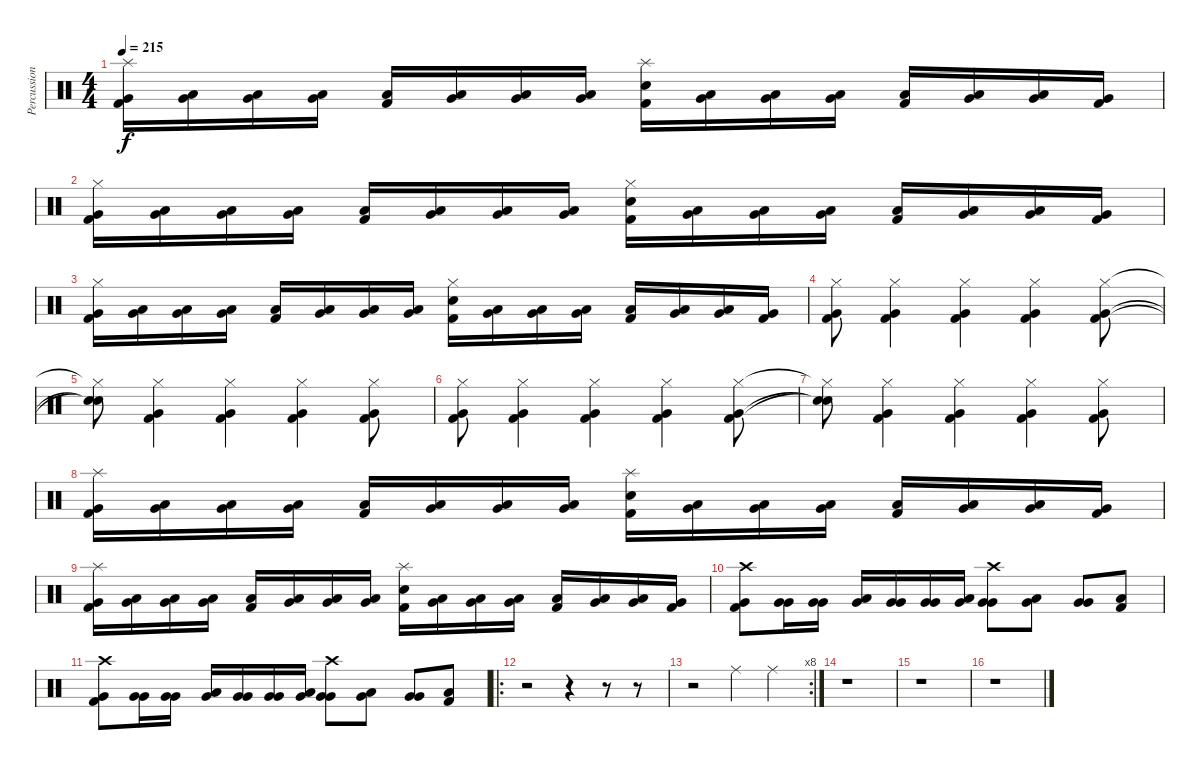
\track ("Percussion" "Percussion") {instrument percussion}
\staff {score}
\articulation defaults
\ts (4 4)
\tempo 215
\clef neutral
\ks c
("Splash (hit)" "Kick (hit) 2" "Very Low Tom (hit)").16{dy f} ("Low Floor Tom (hit)" "Very Low Tom (hit)").16 ("Low Floor Tom (hit)" "Very Low Tom (hit)").16 ("Low Floor Tom (hit)" "Very Low Tom (hit)").16 ("Kick (hit) 2" "Low Floor Tom (hit)").16 ("Low Floor Tom (hit)" "Very Low Tom (hit)").16 ("Low Floor Tom (hit)" "Very Low Tom (hit)").16 ("Low Floor Tom (hit)" "Very Low Tom (hit)").16 ("Splash (hit)" "Kick (hit) 2" "Electric Snare (hit)").16 ("Low Floor Tom (hit)" "Very Low Tom (hit)").16 ("Low Floor Tom (hit)" "Very Low Tom (hit)").16 ("Low Floor Tom (hit)" "Very Low Tom (hit)").16 ("Kick (hit) 2" "Low Floor Tom (hit)").16 ("Low Floor Tom (hit)" "Very Low Tom (hit)").16 ("Low Floor Tom (hit)" "Very Low Tom (hit)").16 ("Kick (hit) 2" "Very Low Tom (hit)").16 |
("Hi-Hat (closed)" "Kick (hit) 2" "Very Low Tom (hit)").16 ("Low Floor Tom (hit)" "Very Low Tom (hit)").16 ("Low Floor Tom (hit)" "Very Low Tom (hit)").16 ("Low Floor Tom (hit)" "Very Low Tom (hit)").16 ("Kick (hit) 2" "Low Floor Tom (hit)").16 ("Low Floor Tom (hit)" "Very Low Tom (hit)").16 ("Low Floor Tom (hit)" "Very Low Tom (hit)").16 ("Low Floor Tom (hit)" "Very Low Tom (hit)").16 ("Hi-Hat (closed)" "Kick (hit) 2" "Electric Snare (hit)").16 ("Low Floor Tom (hit)" "Very Low Tom (hit)").16 ("Low Floor Tom (hit)" "Very Low Tom (hit)").16 ("Low Floor Tom (hit)" "Very Low Tom (hit)").16 ("Kick (hit) 2" "Low Floor Tom (hit)").16 ("Low Floor Tom (hit)" "Very Low Tom (hit)").16 ("Low Floor Tom (hit)" "Very Low Tom (hit)").16 ("Kick (hit) 2" "Very Low Tom (hit)").16 |
("Hi-Hat (closed)" "Kick (hit) 2" "Very Low Tom (hit)").16 ("Low Floor Tom (hit)" "Very Low Tom (hit)").16 ("Low Floor Tom (hit)" "Very Low Tom (hit)").16 ("Low Floor Tom (hit)" "Very Low Tom (hit)").16 ("Kick (hit) 2" "Low Floor Tom (hit)").16 ("Low Floor Tom (hit)" "Very Low Tom (hit)").16 ("Low Floor Tom (hit)" "Very Low Tom (hit)").16 ("Low Floor Tom (hit)" "Very Low Tom (hit)").16 ("Hi-Hat (closed)" "Kick (hit) 2" "Electric Snare (hit)").16 ("Low Floor Tom (hit)" "Very Low Tom (hit)").16 ("Low Floor Tom (hit)" "Very Low Tom (hit)").16 ("Low Floor Tom (hit)" "Very Low Tom (hit)").16 ("Kick (hit) 2" "Low Floor Tom (hit)").16 ("Low Floor Tom (hit)" "Very Low Tom (hit)").16 ("Low Floor Tom (hit)" "Very Low Tom (hit)").16 ("Kick (hit) 2" "Very Low Tom (hit)").16 |
("Hi-Hat (closed)" "Kick (hit) 2" "Very Low Tom (hit)").8 ("Hi-Hat (closed)" "Kick (hit) 2" "Very Low Tom (hit)").4 ("Hi-Hat (closed)" "Kick (hit) 2" "Very Low Tom (hit)").4 ("Hi-Hat (closed)" "Kick (hit) 2" "Very Low Tom (hit)").4 ("Hi-Hat (closed)" "Kick (hit) 2" "Very Low Tom (hit)").8 |
("Hi-Hat (closed)"{t} "Snare (hit)"{t} "Snare (hit)"{t}).8 ("Hi-Hat (closed)" "Kick (hit) 2" "Very Low Tom (hit)").4 ("Hi-Hat (closed)" "Kick (hit) 2" "Very Low Tom (hit)").4 ("Hi-Hat (closed)" "Kick (hit) 2" "Very Low Tom (hit)").4 ("Hi-Hat (closed)" "Kick (hit) 2" "Very Low Tom (hit)").8 |
("Hi-Hat (closed)" "Kick (hit) 2" "Very Low Tom (hit)").8 ("Hi-Hat (closed)" "Kick (hit) 2" "Very Low Tom (hit)").4 ("Hi-Hat (closed)" "Kick (hit) 2" "Very Low Tom (hit)").4 ("Hi-Hat (closed)" "Kick (hit) 2" "Very Low Tom (hit)").4 ("Hi-Hat (closed)" "Kick (hit) 2" "Very Low Tom (hit)").8 |
("Hi-Hat (closed)"{t} "Snare (hit)"{t} "Snare (hit)"{t}).8 ("Hi-Hat (closed)" "Kick (hit) 2" "Very Low Tom (hit)").4 ("Hi-Hat (closed)" "Kick (hit) 2" "Very Low Tom (hit)").4 ("Hi-Hat (closed)" "Kick (hit) 2" "Very Low Tom (hit)").4 ("Hi-Hat (closed)" "Kick (hit) 2" "Very Low Tom (hit)").8 |
("Splash (hit)" "Kick (hit) 2" "Very Low Tom (hit)").16 ("Low Floor Tom (hit)" "Very Low Tom (hit)").16 ("Low Floor Tom (hit)" "Very Low Tom (hit)").16 ("Low Floor Tom (hit)" "Very Low Tom (hit)").16 ("Kick (hit) 2" "Low Floor Tom (hit)").16 ("Low Floor Tom (hit)" "Very Low Tom (hit)").16 ("Low Floor Tom (hit)" "Very Low Tom (hit)").16 ("Low Floor Tom (hit)" "Very Low Tom (hit)").16 ("Splash (hit)" "Kick (hit) 2" "Electric Snare (hit)").16 ("Low Floor Tom (hit)" "Very Low Tom (hit)").16 ("Low Floor Tom (hit)" "Very Low Tom (hit)").16 ("Low Floor Tom (hit)" "Very Low Tom (hit)").16 ("Kick (hit) 2" "Low Floor Tom (hit)").16 ("Low Floor Tom (hit)" "Very Low Tom (hit)").16 ("Low Floor Tom (hit)" "Very Low Tom (hit)").16 ("Kick (hit) 2" "Very Low Tom (hit)").16 |
("Splash (hit)" "Kick (hit) 2" "Very Low Tom (hit)").16 ("Low Floor Tom (hit)" "Very Low Tom (hit)").16 ("Low Floor Tom (hit)" "Very Low Tom (hit)").16 ("Low Floor Tom (hit)" "Very Low Tom (hit)").16 ("Kick (hit) 2" "Low Floor Tom (hit)").16 ("Low Floor Tom (hit)" "Very Low Tom (hit)").16 ("Low Floor Tom (hit)" "Very Low Tom (hit)").16 ("Low Floor Tom (hit)" "Very Low Tom (hit)").16 ("Splash (hit)" "Kick (hit) 2" "Electric Snare (hit)").16 ("Low Floor Tom (hit)" "Very Low Tom (hit)").16 ("Low Floor Tom (hit)" "Very Low Tom (hit)").16 ("Low Floor Tom (hit)" "Very Low Tom (hit)").16 ("Kick (hit) 2" "Low Floor Tom (hit)").16 ("Low Floor Tom (hit)" "Very Low Tom (hit)").16 ("Low Floor Tom (hit)" "Very Low Tom (hit)").16 ("Kick (hit) 2" "Very Low Tom (hit)").16 |
("Crash high (hit)" "Kick (hit) 2" "Very Low Tom (hit)").8 ("Very Low Tom (hit)" "Very Low Tom (hit)").16 ("Very Low Tom (hit)" "Very Low Tom (hit)").16 ("Low Floor Tom (hit)" "Very Low Tom (hit)").16 ("Very Low Tom (hit)" "Very Low Tom (hit)").16 ("Very Low Tom (hit)" "Very Low Tom (hit)").16 ("Low Floor Tom (hit)" "Very Low Tom (hit)").16 ("Crash high (hit)" "Very Low Tom (hit)" "Very Low Tom (hit)").8 ("Low Floor Tom (hit)" "Very Low Tom (hit)").8 ("Very Low Tom (hit)" "Very Low Tom (hit)").8 ("Kick (hit) 2" "Low Floor Tom (hit)").8 |
("Crash high (hit)" "Kick (hit) 2" "Very Low Tom (hit)").8 ("Very Low Tom (hit)" "Very Low Tom (hit)").16 ("Very Low Tom (hit)" "Very Low Tom (hit)").16 ("Low Floor Tom (hit)" "Very Low Tom (hit)").16 ("Very Low Tom (hit)" "Very Low Tom (hit)").16 ("Very Low Tom (hit)" "Very Low Tom (hit)").16 ("Low Floor Tom (hit)" "Very Low Tom (hit)").16 ("Crash high (hit)" "Very Low Tom (hit)" "Very Low Tom (hit)").8 ("Low Floor Tom (hit)" "Very Low Tom (hit)").8 ("Very Low Tom (hit)" "Very Low Tom (hit)").8 ("Kick (hit) 2" "Low Floor Tom (hit)").8 |
\ro
r.2 r.4 r.8 r.8 |
\rc 8
r.2 "Ride (middle)".4 "Ride (middle)".4 |
r.1 |
r.1 |
r.1
